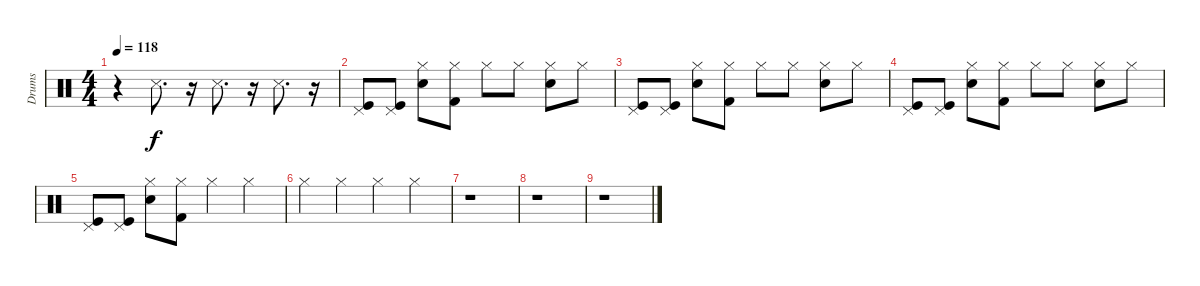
\track ("Drums" "Drums") {instrument percussion}
\staff {score}
\articulation defaults
\ts (4 4)
\tempo 118
\clef neutral
\ks c
r.4{dy f} "Metronome (hit)".8{d} r.16 "Metronome (hit)".8{d} r.16 "Metronome (hit)".8{d} r.16 |
("Pedal Hi-Hat (hit)" "Kick (hit)").8 ("Pedal Hi-Hat (hit)" "Kick (hit)").8 ("Hi-Hat (closed)" "Snare (hit) 2").8 ("Hi-Hat (closed)" "Kick (hit) 2").8 "Hi-Hat (closed)".8 "Hi-Hat (closed)".8 ("Hi-Hat (closed)" "Snare (hit) 2").8 "Hi-Hat (closed)".8 |
("Pedal Hi-Hat (hit)" "Kick (hit)").8 ("Pedal Hi-Hat (hit)" "Kick (hit)").8 ("Hi-Hat (closed)" "Snare (hit) 2").8 ("Hi-Hat (closed)" "Kick (hit) 2").8 "Hi-Hat (closed)".8 "Hi-Hat (closed)".8 ("Hi-Hat (closed)" "Snare (hit) 2").8 "Hi-Hat (closed)".8 |
("Pedal Hi-Hat (hit)" "Kick (hit)").8 ("Pedal Hi-Hat (hit)" "Kick (hit)").8 ("Hi-Hat (closed)" "Snare (hit) 2").8 ("Hi-Hat (closed)" "Kick (hit) 2").8 "Hi-Hat (closed)".8 "Hi-Hat (closed)".8 ("Hi-Hat (closed)" "Snare (hit) 2").8 "Hi-Hat (closed)".8 |
("Pedal Hi-Hat (hit)" "Kick (hit)").8 ("Pedal Hi-Hat (hit)" "Kick (hit)").8 ("Hi-Hat (closed)" "Snare (hit) 2").8 ("Hi-Hat (closed)" "Kick (hit) 2").8 "Hi-Hat (closed)".4 "Hi-Hat (closed)".4 |
"Hi-Hat (closed)".4 "Hi-Hat (closed)".4 "Hi-Hat (closed)".4 "Hi-Hat (closed)".4 |
r.1 |
r.1 |
r.1
